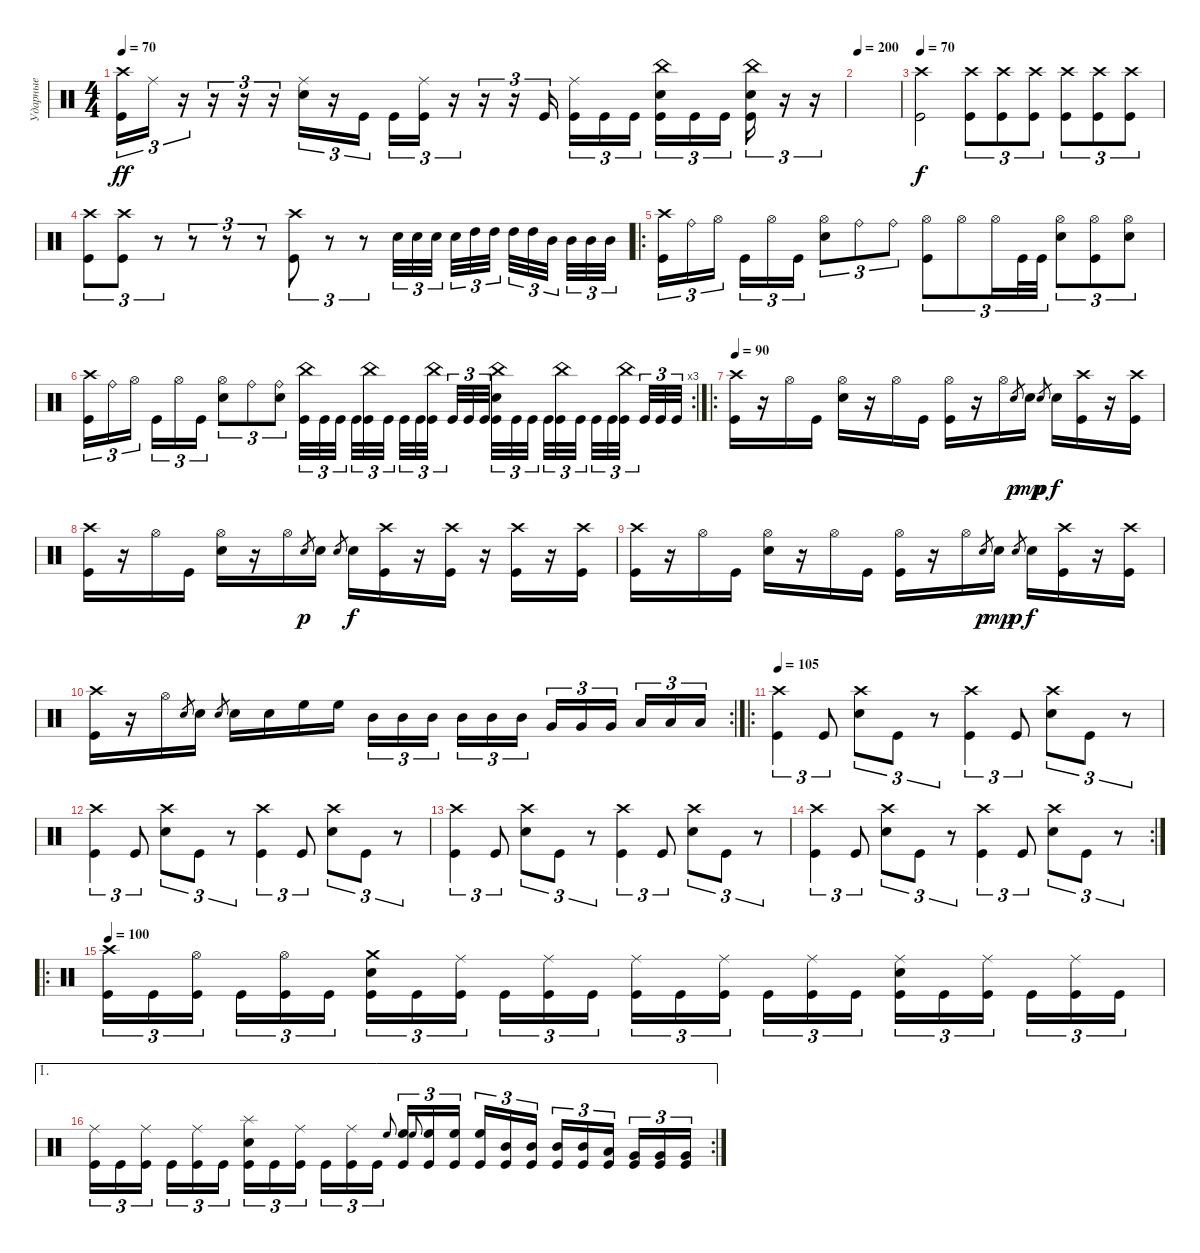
\track ("Ударные" "Ударные") {instrument percussion}
\staff {score}
\articulation defaults
\ts (4 4)
\tempo 70
\clef neutral
\ks c
("Crash high (hit)" "Kick (hit)").16{tu (3 2) dy ff} "Ride (middle)".16{tu (3 2)} r.16{tu (3 2)} r.16{tu (3 2)} r.16{tu (3 2)} r.16{tu (3 2)} ("Ride (middle)" "Snare (hit) 2").16{tu (3 2)} r.16{tu (3 2)} "Kick (hit)".16{tu (3 2) beam splitsecondary} "Kick (hit)".16{tu (3 2)} ("Kick (hit)" "Ride (middle)").16{tu (3 2)} r.16{tu (3 2)} r.16{tu (3 2)} r.16{tu (3 2)} "Kick (hit)".16{tu (3 2) beam splitsecondary} ("Kick (hit)" "Ride (middle)").16{tu (3 2)} "Kick (hit)".16{tu (3 2)} "Kick (hit)".16{tu (3 2)} ("Kick (hit)" "Snare (hit) 2" "China (hit)").16{tu (3 2)} "Kick (hit)".16{tu (3 2)} "Kick (hit)".16{tu (3 2) beam splitsecondary} ("Kick (hit)" "Snare (hit) 2" "China (hit)").16{tu (3 2)} r.16{tu (3 2)} r.16{tu (3 2)} |
\tempo 200
|
\tempo 70
("Crash high (hit)" "Kick (hit)").2{dy f} ("Crash high (hit)" "Kick (hit)").8{tu (3 2)} ("Crash high (hit)" "Kick (hit)").8{tu (3 2)} ("Crash high (hit)" "Kick (hit)").8{tu (3 2)} ("Crash high (hit)" "Kick (hit)").8{tu (3 2)} ("Crash high (hit)" "Kick (hit)").8{tu (3 2)} ("Crash high (hit)" "Kick (hit)").8{tu (3 2)} |
("Crash high (hit)" "Kick (hit)").8{tu (3 2)} ("Crash high (hit)" "Kick (hit)").8{tu (3 2)} r.8{tu (3 2)} r.8{tu (3 2)} r.8{tu (3 2)} r.8{tu (3 2)} ("Crash high (hit)" "Kick (hit)").8{tu (3 2)} r.8{tu (3 2)} r.8{tu (3 2)} "Snare (hit) 2".32{tu (3 2)} "Snare (hit) 2".32{tu (3 2)} "Snare (hit) 2".32{tu (3 2) beam splitsecondary} "Snare (hit) 2".32{tu (3 2)} "High Tom (hit)".32{tu (3 2)} "High Tom (hit)".32{tu (3 2) beam splitsecondary} "High Tom (hit)".32{tu (3 2)} "High Tom (hit)".32{tu (3 2)} "Mid Tom (hit)".32{tu (3 2) beam splitsecondary} "Mid Tom (hit)".32{tu (3 2)} "Mid Tom (hit)".32{tu (3 2)} "Mid Tom (hit)".32{tu (3 2)} |
\ro
("Crash high (hit)" "Kick (hit)").16{tu (3 2)} "Ride (bell)".16{tu (3 2)} "Hi-Hat (open)".16{tu (3 2) beam splitsecondary} "Kick (hit)".16{tu (3 2)} "Hi-Hat (open)".16{tu (3 2)} "Kick (hit)".16{tu (3 2)} ("Hi-Hat (open)" "Snare (hit) 2").8{tu (3 2)} "Ride (bell)".8{tu (3 2)} "Ride (bell)".8{tu (3 2)} ("Hi-Hat (open)" "Kick (hit)").8{tu (3 2)} "Hi-Hat (open)".8{tu (3 2)} "Hi-Hat (open)".16{tu (3 2)} "Kick (hit)".32{tu (3 2)} "Kick (hit)".32{tu (3 2)} ("Hi-Hat (open)" "Snare (hit) 2").8{tu (3 2)} ("Hi-Hat (open)" "Kick (hit)").8{tu (3 2)} ("Hi-Hat (open)" "Snare (hit) 2").8{tu (3 2)} |
\rc 3
("Crash high (hit)" "Kick (hit)").16{tu (3 2)} "Ride (bell)".16{tu (3 2)} "Hi-Hat (open)".16{tu (3 2) beam splitsecondary} "Kick (hit)".16{tu (3 2)} "Hi-Hat (open)".16{tu (3 2)} "Kick (hit)".16{tu (3 2)} ("Hi-Hat (open)" "Snare (hit) 2").8{tu (3 2)} "Ride (bell)".8{tu (3 2)} ("Snare (hit) 2" "Ride (bell)").8{tu (3 2)} ("China (hit)" "Kick (hit)").32{tu (3 2)} "Kick (hit)".32{tu (3 2)} "Kick (hit)".32{tu (3 2) beam splitsecondary} "Kick (hit)".32{tu (3 2)} ("China (hit)" "Kick (hit)").32{tu (3 2)} "Kick (hit)".32{tu (3 2) beam splitsecondary} "Kick (hit)".32{tu (3 2)} "Kick (hit)".32{tu (3 2)} ("China (hit)" "Kick (hit)").32{tu (3 2) beam splitsecondary} "Kick (hit)".32{tu (3 2)} "Kick (hit)".32{tu (3 2)} "Kick (hit)".32{tu (3 2)} ("Snare (hit) 2" "China (hit)" "Kick (hit)").32{tu (3 2)} "Kick (hit)".32{tu (3 2)} "Kick (hit)".32{tu (3 2) beam splitsecondary} "Kick (hit)".32{tu (3 2)} ("China (hit)" "Kick (hit)").32{tu (3 2)} "Kick (hit)".32{tu (3 2) beam splitsecondary} "Kick (hit)".32{tu (3 2)} "Kick (hit)".32{tu (3 2)} ("China (hit)" "Kick (hit)").32{tu (3 2) beam splitsecondary} "Kick (hit)".32{tu (3 2)} "Kick (hit)".32{tu (3 2)} "Kick (hit)".32{tu (3 2)} |
\ro
\tempo 90
("Crash high (hit)" "Kick (hit)").16 r.16 "Hi-Hat (open)".16 "Kick (hit)".16 ("Hi-Hat (open)" "Snare (hit) 2").16 r.16 "Hi-Hat (open)".16 "Kick (hit)".16 ("Hi-Hat (open)" "Kick (hit)").16 r.16 "Hi-Hat (open)".16 "Snare (hit) 2".8{gr dy p} "Snare (hit) 2".16{dy mp} "Snare (hit) 2".8{gr dy p} "Snare (hit) 2".16{dy f} ("Crash high (hit)" "Kick (hit)").16 r.16 ("Kick (hit)" "Crash high (hit)").16 |
("Crash high (hit)" "Kick (hit)").16 r.16 "Hi-Hat (open)".16 "Kick (hit)".16 ("Hi-Hat (open)" "Snare (hit) 2").16 r.16 "Hi-Hat (open)".16 "Snare (hit) 2".8{gr dy p} "Snare (hit) 2".16 "Snare (hit) 2".8{gr} "Snare (hit) 2".16{dy f} ("Kick (hit)" "Crash high (hit)").16 r.16 ("Kick (hit)" "Crash high (hit)").16 r.16 ("Kick (hit)" "Crash high (hit)").16 r.16 ("Kick (hit)" "Crash high (hit)").16 |
("Crash high (hit)" "Kick (hit)").16 r.16 "Hi-Hat (open)".16 "Kick (hit)".16 ("Hi-Hat (open)" "Snare (hit) 2").16 r.16 "Hi-Hat (open)".16 "Kick (hit)".16 ("Hi-Hat (open)" "Kick (hit)").16 r.16 "Hi-Hat (open)".16 "Snare (hit) 2".8{gr dy p} "Snare (hit) 2".16{dy mp} "Snare (hit) 2".8{gr dy p} "Snare (hit) 2".16{dy f} ("Crash high (hit)" "Kick (hit)").16 r.16 ("Kick (hit)" "Crash high (hit)").16 |
\rc 2
("Crash high (hit)" "Kick (hit)").16 r.16 "Hi-Hat (open)".16 "Snare (hit) 2".8{gr} "Snare (hit) 2".16 "Snare (hit) 2".8{gr} "Snare (hit) 2".16 "Snare (hit) 2".16 "High Floor Tom (hit)".16 "High Floor Tom (hit)".16 "Mid Tom (hit)".16{tu (3 2)} "Mid Tom (hit)".16{tu (3 2)} "Mid Tom (hit)".16{tu (3 2) beam splitsecondary} "Mid Tom (hit)".16{tu (3 2)} "Mid Tom (hit)".16{tu (3 2)} "Mid Tom (hit)".16{tu (3 2)} "Very Low Tom (hit)".16{tu (3 2)} "Very Low Tom (hit)".16{tu (3 2)} "Very Low Tom (hit)".16{tu (3 2) beam splitsecondary} "Low Floor Tom (hit)".16{tu (3 2)} "Low Floor Tom (hit)".16{tu (3 2)} "Low Floor Tom (hit)".16{tu (3 2)} |
\ro
\tempo 105
("Crash high (hit)" "Kick (hit)").4{tu (3 2)} "Kick (hit)".8{tu (3 2)} ("Crash high (hit)" "Snare (hit) 2").8{tu (3 2)} "Kick (hit)".8{tu (3 2)} r.8{tu (3 2)} ("Crash high (hit)" "Kick (hit)").4{tu (3 2)} "Kick (hit)".8{tu (3 2)} ("Crash high (hit)" "Snare (hit) 2").8{tu (3 2)} "Kick (hit)".8{tu (3 2)} r.8{tu (3 2)} |
("Crash high (hit)" "Kick (hit)").4{tu (3 2)} "Kick (hit)".8{tu (3 2)} ("Crash high (hit)" "Snare (hit) 2").8{tu (3 2)} "Kick (hit)".8{tu (3 2)} r.8{tu (3 2)} ("Crash high (hit)" "Kick (hit)").4{tu (3 2)} "Kick (hit)".8{tu (3 2)} ("Crash high (hit)" "Snare (hit) 2").8{tu (3 2)} "Kick (hit)".8{tu (3 2)} r.8{tu (3 2)} |
("Crash high (hit)" "Kick (hit)").4{tu (3 2)} "Kick (hit)".8{tu (3 2)} ("Crash high (hit)" "Snare (hit) 2").8{tu (3 2)} "Kick (hit)".8{tu (3 2)} r.8{tu (3 2)} ("Crash high (hit)" "Kick (hit)").4{tu (3 2)} "Kick (hit)".8{tu (3 2)} ("Crash high (hit)" "Snare (hit) 2").8{tu (3 2)} "Kick (hit)".8{tu (3 2)} r.8{tu (3 2)} |
\rc 2
("Crash high (hit)" "Kick (hit)").4{tu (3 2)} "Kick (hit)".8{tu (3 2)} ("Crash high (hit)" "Snare (hit) 2").8{tu (3 2)} "Kick (hit)".8{tu (3 2)} r.8{tu (3 2)} ("Crash high (hit)" "Kick (hit)").4{tu (3 2)} "Kick (hit)".8{tu (3 2)} ("Crash high (hit)" "Snare (hit) 2").8{tu (3 2)} "Kick (hit)".8{tu (3 2)} r.8{tu (3 2)} |
\ro
\tempo 100
("Crash high (hit)" "Kick (hit)").16{tu (3 2)} "Kick (hit)".16{tu (3 2)} ("Hi-Hat (open)" "Kick (hit)").16{tu (3 2) beam splitsecondary} "Kick (hit)".16{tu (3 2)} ("Hi-Hat (open)" "Kick (hit)").16{tu (3 2)} "Kick (hit)".16{tu (3 2)} ("Crash medium (hit)" "Snare (hit) 2" "Kick (hit)").16{tu (3 2)} "Kick (hit)".16{tu (3 2)} ("Ride (middle)" "Kick (hit)").16{tu (3 2) beam splitsecondary} "Kick (hit)".16{tu (3 2)} ("Ride (middle)" "Kick (hit)").16{tu (3 2)} "Kick (hit)".16{tu (3 2)} ("Ride (middle)" "Kick (hit)").16{tu (3 2)} "Kick (hit)".16{tu (3 2)} ("Ride (middle)" "Kick (hit)").16{tu (3 2) beam splitsecondary} "Kick (hit)".16{tu (3 2)} ("Ride (middle)" "Kick (hit)").16{tu (3 2)} "Kick (hit)".16{tu (3 2)} ("Ride (middle)" "Snare (hit) 2" "Kick (hit)").16{tu (3 2)} "Kick (hit)".16{tu (3 2)} ("Ride (middle)" "Kick (hit)").16{tu (3 2) beam splitsecondary} "Kick (hit)".16{tu (3 2)} ("Ride (middle)" "Kick (hit)").16{tu (3 2)} "Kick (hit)".16{tu (3 2)} |
\ae 1
\rc 2
("Ride (middle)" "Kick (hit)").16{tu (3 2)} "Kick (hit)".16{tu (3 2)} ("Ride (middle)" "Kick (hit)").16{tu (3 2) beam splitsecondary} "Kick (hit)".16{tu (3 2)} ("Ride (middle)" "Kick (hit)").16{tu (3 2)} "Kick (hit)".16{tu (3 2)} ("Splash (hit)" "Snare (hit) 2" "Kick (hit)").16{tu (3 2)} "Kick (hit)".16{tu (3 2)} ("Ride (middle)" "Kick (hit)").16{tu (3 2) beam splitsecondary} "Kick (hit)".16{tu (3 2)} ("Ride (middle)" "Kick (hit)").16{tu (3 2)} "Kick (hit)".16{tu (3 2)} "High Floor Tom (hit)".8{gr onbeat} ("High Floor Tom (hit)" "Kick (hit)").16{tu (3 2)} "High Floor Tom (hit)".8{gr onbeat} ("High Floor Tom (hit)" "Kick (hit)").16{tu (3 2)} ("High Floor Tom (hit)" "Kick (hit)").16{tu (3 2) beam splitsecondary} ("High Floor Tom (hit)" "Kick (hit)").16{tu (3 2)} ("Mid Tom (hit)" "Kick (hit)").16{tu (3 2)} ("Mid Tom (hit)" "Kick (hit)").16{tu (3 2)} ("Mid Tom (hit)" "Kick (hit)").16{tu (3 2)} ("Mid Tom (hit)" "Kick (hit)").16{tu (3 2)} ("Low Tom (hit)" "Kick (hit)").16{tu (3 2) beam splitsecondary} ("Very Low Tom (hit)" "Kick (hit)").16{tu (3 2)} ("Very Low Tom (hit)" "Kick (hit)").16{tu (3 2)} ("Very Low Tom (hit)" "Kick (hit)").16{tu (3 2)}
